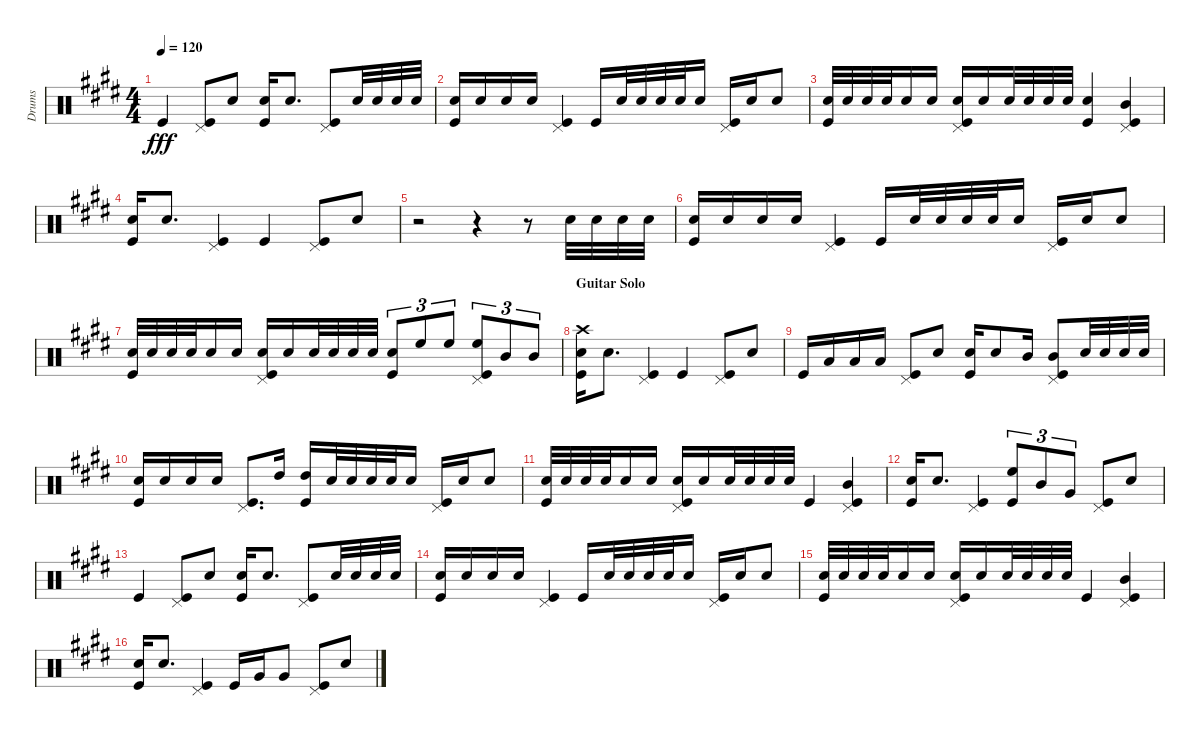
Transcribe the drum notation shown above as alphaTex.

\track ("Drums" "Drums") {instrument percussion}
\staff {score}
\articulation defaults
\ts (4 4)
\tempo 120
\clef neutral
\ks e "Kick (hit)".4{dy fff}
("Pedal Hi-Hat (hit)" "Kick (hit)").8 "Snare (hit) 2".8 ("Snare (hit) 2" "Kick (hit)").16 "Snare (hit) 2".8{d} ("Pedal Hi-Hat (hit)" "Kick (hit)").8 "Snare (hit) 2".32 "Snare (hit) 2".32 "Snare (hit) 2".32 "Snare (hit) 2".32 |
("Snare (hit) 2" "Kick (hit)").16 "Snare (hit) 2".16 "Snare (hit) 2".16 "Snare (hit) 2".16 ("Pedal Hi-Hat (hit)" "Kick (hit)").4 "Kick (hit)".16 "Snare (hit) 2".32 "Snare (hit) 2".32 "Snare (hit) 2".32 "Snare (hit) 2".32 "Snare (hit) 2".16 ("Pedal Hi-Hat (hit)" "Kick (hit)").16 "Snare (hit) 2".16 "Snare (hit) 2".8 |
("Snare (hit) 2" "Kick (hit)").32 "Snare (hit) 2".32 "Snare (hit) 2".32 "Snare (hit) 2".32 "Snare (hit) 2".16 "Snare (hit) 2".16 ("Pedal Hi-Hat (hit)" "Snare (hit) 2" "Kick (hit)").16 "Snare (hit) 2".16 "Snare (hit) 2".32 "Snare (hit) 2".32 "Snare (hit) 2".32 "Snare (hit) 2".32 ("Snare (hit) 2" "Kick (hit)").4 ("Pedal Hi-Hat (hit)" "Mid Tom (hit)" "Kick (hit)").4 |
("Snare (hit) 2" "Kick (hit)").16 "Snare (hit) 2".8{d} ("Pedal Hi-Hat (hit)" "Kick (hit)").4 "Kick (hit)".4 ("Pedal Hi-Hat (hit)" "Kick (hit)").8 "Snare (hit) 2".8 |
r.2 r.4 r.8 "Snare (hit) 2".32 "Snare (hit) 2".32 "Snare (hit) 2".32 "Snare (hit) 2".32 |
("Snare (hit) 2" "Kick (hit)").16 "Snare (hit) 2".16 "Snare (hit) 2".16 "Snare (hit) 2".16 ("Pedal Hi-Hat (hit)" "Kick (hit)").4 "Kick (hit)".16 "Snare (hit) 2".32 "Snare (hit) 2".32 "Snare (hit) 2".32 "Snare (hit) 2".32 "Snare (hit) 2".16 ("Pedal Hi-Hat (hit)" "Kick (hit)").16 "Snare (hit) 2".16 "Snare (hit) 2".8 |
("Snare (hit) 2" "Kick (hit)").32 "Snare (hit) 2".32 "Snare (hit) 2".32 "Snare (hit) 2".32 "Snare (hit) 2".16 "Snare (hit) 2".16 ("Pedal Hi-Hat (hit)" "Snare (hit) 2" "Kick (hit)").16 "Snare (hit) 2".16 "Snare (hit) 2".32 "Snare (hit) 2".32 "Snare (hit) 2".32 "Snare (hit) 2".32 ("Snare (hit) 2" "Kick (hit)").8{tu (3 2)} "High Floor Tom (hit)".8{tu (3 2)} "High Floor Tom (hit)".8{tu (3 2)} ("Pedal Hi-Hat (hit)" "High Floor Tom (hit)" "Kick (hit)").8{tu (3 2)} "Mid Tom (hit)".8{tu (3 2)} "Mid Tom (hit)".8{tu (3 2)} |
\section ("" "Guitar Solo")
("Crash high (hit)" "Snare (hit) 2" "Kick (hit)").16 "Snare (hit) 2".8{d} ("Pedal Hi-Hat (hit)" "Kick (hit)").4 "Kick (hit)".4 ("Pedal Hi-Hat (hit)" "Kick (hit)").8 "Snare (hit) 2".8 |
"Kick (hit)".16 "Low Tom (hit)".16 "Low Tom (hit)".16 "Low Tom (hit)".16 ("Pedal Hi-Hat (hit)" "Kick (hit)").8 "Snare (hit) 2".8 ("Snare (hit) 2" "Kick (hit)").16 "Snare (hit) 2".8 "Mid Tom (hit)".16 ("Pedal Hi-Hat (hit)" "Mid Tom (hit)" "Kick (hit)").8 "Snare (hit) 2".32 "Snare (hit) 2".32 "Snare (hit) 2".32 "Snare (hit) 2".32 |
("Snare (hit) 2" "Kick (hit)").16 "Snare (hit) 2".16 "Snare (hit) 2".16 "Snare (hit) 2".16 ("Pedal Hi-Hat (hit)" "Kick (hit)").8{d} "High Tom (hit)".16 ("High Tom (hit)" "Kick (hit)").16 "Snare (hit) 2".32 "Snare (hit) 2".32 "Snare (hit) 2".32 "Snare (hit) 2".32 "Snare (hit) 2".16 ("Pedal Hi-Hat (hit)" "Kick (hit)").16 "Snare (hit) 2".16 "Snare (hit) 2".8 |
("Snare (hit) 2" "Kick (hit)").32 "Snare (hit) 2".32 "Snare (hit) 2".32 "Snare (hit) 2".32 "Snare (hit) 2".16 "Snare (hit) 2".16 ("Pedal Hi-Hat (hit)" "Snare (hit) 2" "Kick (hit)").16 "Snare (hit) 2".16 "Snare (hit) 2".32 "Snare (hit) 2".32 "Snare (hit) 2".32 "Snare (hit) 2".32 "Kick (hit)".4 ("Pedal Hi-Hat (hit)" "Mid Tom (hit)" "Kick (hit)").4 |
("Snare (hit) 2" "Kick (hit)").16 "Snare (hit) 2".8{d} ("Pedal Hi-Hat (hit)" "Kick (hit)").4 ("High Floor Tom (hit)" "Kick (hit)").8{tu (3 2)} "Mid Tom (hit)".8{tu (3 2)} "Very Low Tom (hit)".8{tu (3 2)} ("Pedal Hi-Hat (hit)" "Kick (hit)").8 "Snare (hit) 2".8 |
"Kick (hit)".4 ("Pedal Hi-Hat (hit)" "Kick (hit)").8 "Snare (hit) 2".8 ("Snare (hit) 2" "Kick (hit)").16 "Snare (hit) 2".8{d} ("Pedal Hi-Hat (hit)" "Kick (hit)").8 "Snare (hit) 2".32 "Snare (hit) 2".32 "Snare (hit) 2".32 "Snare (hit) 2".32 |
("Snare (hit) 2" "Kick (hit)").16 "Snare (hit) 2".16 "Snare (hit) 2".16 "Snare (hit) 2".16 ("Pedal Hi-Hat (hit)" "Kick (hit)").4 "Kick (hit)".16 "Snare (hit) 2".32 "Snare (hit) 2".32 "Snare (hit) 2".32 "Snare (hit) 2".32 "Snare (hit) 2".16 ("Pedal Hi-Hat (hit)" "Kick (hit)").16 "Snare (hit) 2".16 "Snare (hit) 2".8 |
("Snare (hit) 2" "Kick (hit)").32 "Snare (hit) 2".32 "Snare (hit) 2".32 "Snare (hit) 2".32 "Snare (hit) 2".16 "Snare (hit) 2".16 ("Pedal Hi-Hat (hit)" "Snare (hit) 2" "Kick (hit)").16 "Snare (hit) 2".16 "Snare (hit) 2".32 "Snare (hit) 2".32 "Snare (hit) 2".32 "Snare (hit) 2".32 "Kick (hit)".4 ("Pedal Hi-Hat (hit)" "Mid Tom (hit)" "Kick (hit)").4 |
("Snare (hit) 2" "Kick (hit)").16 "Snare (hit) 2".8{d} ("Pedal Hi-Hat (hit)" "Kick (hit)").4 "Kick (hit)".16 "Very Low Tom (hit)".16 "Very Low Tom (hit)".8 ("Pedal Hi-Hat (hit)" "Kick (hit)").8 "Snare (hit) 2".8
